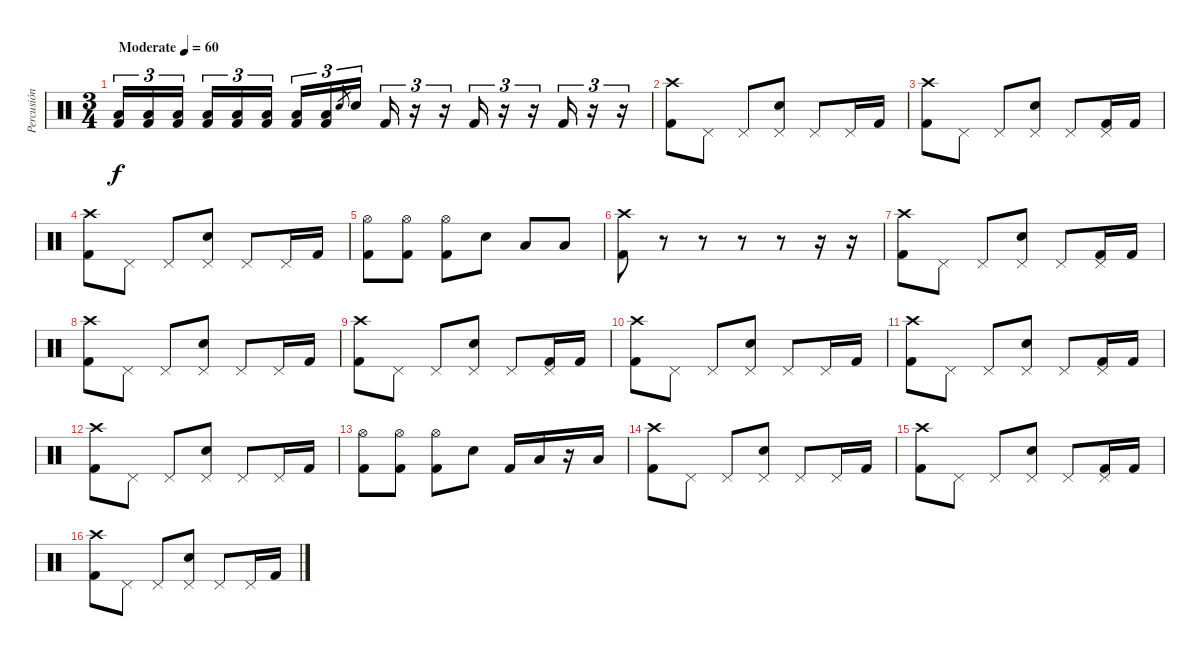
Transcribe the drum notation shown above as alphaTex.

\track ("Percusión" "Percusión") {instrument percussion}
\staff {score}
\articulation defaults
\ts (3 4)
\tempo (60 "Moderate")
\clef neutral
\ks c
("Kick (hit) 2" "Low Tom (hit)").16{tu (3 2) dy f} ("Kick (hit) 2" "Low Tom (hit)").16{tu (3 2)} ("Kick (hit) 2" "Low Tom (hit)").16{tu (3 2) beam splitsecondary} ("Kick (hit) 2" "Low Tom (hit)").16{tu (3 2)} ("Kick (hit) 2" "Low Tom (hit)").16{tu (3 2)} ("Kick (hit) 2" "Low Tom (hit)").16{tu (3 2)} ("Kick (hit) 2" "Low Tom (hit)").16{tu (3 2)} ("Kick (hit) 2" "Low Tom (hit)").16{tu (3 2)} "Snare (hit) 2".8{gr} "Snare (hit) 2".16{tu (3 2) beam splitsecondary} "Kick (hit) 2".16{tu (3 2)} r.16{tu (3 2)} r.16{tu (3 2)} "Kick (hit) 2".16{tu (3 2)} r.16{tu (3 2)} r.16{tu (3 2)} "Kick (hit) 2".16{tu (3 2)} r.16{tu (3 2)} r.16{tu (3 2)} |
("Kick (hit) 2" "Crash high (hit)").8 "Pedal Hi-Hat (hit)".8 "Pedal Hi-Hat (hit)".8 ("Pedal Hi-Hat (hit)" "Snare (hit) 2").8 "Pedal Hi-Hat (hit)".8 "Pedal Hi-Hat (hit)".16 "Kick (hit) 2".16 |
("Crash high (hit)" "Kick (hit) 2").8 "Pedal Hi-Hat (hit)".8 "Pedal Hi-Hat (hit)".8 ("Pedal Hi-Hat (hit)" "Snare (hit) 2").8 "Pedal Hi-Hat (hit)".8 ("Pedal Hi-Hat (hit)" "Kick (hit) 2").16 "Kick (hit) 2".16 |
("Kick (hit) 2" "Crash high (hit)").8 "Pedal Hi-Hat (hit)".8 "Pedal Hi-Hat (hit)".8 ("Pedal Hi-Hat (hit)" "Snare (hit) 2").8 "Pedal Hi-Hat (hit)".8 "Pedal Hi-Hat (hit)".16 "Kick (hit) 2".16 |
("Hi-Hat (open)" "Kick (hit) 2").8 ("Hi-Hat (open)" "Kick (hit) 2").8 ("Hi-Hat (open)" "Kick (hit) 2").8 "Snare (hit) 2".8 "Low Tom (hit)".8 "Low Tom (hit)".8 |
("Kick (hit) 2" "Crash high (hit)").8 r.8 r.8 r.8 r.8 r.16 r.16 |
("Crash high (hit)" "Kick (hit) 2").8 "Pedal Hi-Hat (hit)".8 "Pedal Hi-Hat (hit)".8 ("Pedal Hi-Hat (hit)" "Snare (hit) 2").8 "Pedal Hi-Hat (hit)".8 ("Pedal Hi-Hat (hit)" "Kick (hit) 2").16 "Kick (hit) 2".16 |
("Kick (hit) 2" "Crash high (hit)").8 "Pedal Hi-Hat (hit)".8 "Pedal Hi-Hat (hit)".8 ("Pedal Hi-Hat (hit)" "Snare (hit) 2").8 "Pedal Hi-Hat (hit)".8 "Pedal Hi-Hat (hit)".16 "Kick (hit) 2".16 |
("Crash high (hit)" "Kick (hit) 2").8 "Pedal Hi-Hat (hit)".8 "Pedal Hi-Hat (hit)".8 ("Pedal Hi-Hat (hit)" "Snare (hit) 2").8 "Pedal Hi-Hat (hit)".8 ("Pedal Hi-Hat (hit)" "Kick (hit) 2").16 "Kick (hit) 2".16 |
("Kick (hit) 2" "Crash high (hit)").8 "Pedal Hi-Hat (hit)".8 "Pedal Hi-Hat (hit)".8 ("Pedal Hi-Hat (hit)" "Snare (hit) 2").8 "Pedal Hi-Hat (hit)".8 "Pedal Hi-Hat (hit)".16 "Kick (hit) 2".16 |
("Crash high (hit)" "Kick (hit) 2").8 "Pedal Hi-Hat (hit)".8 "Pedal Hi-Hat (hit)".8 ("Pedal Hi-Hat (hit)" "Snare (hit) 2").8 "Pedal Hi-Hat (hit)".8 ("Pedal Hi-Hat (hit)" "Kick (hit) 2").16 "Kick (hit) 2".16 |
("Kick (hit) 2" "Crash high (hit)").8 "Pedal Hi-Hat (hit)".8 "Pedal Hi-Hat (hit)".8 ("Pedal Hi-Hat (hit)" "Snare (hit) 2").8 "Pedal Hi-Hat (hit)".8 "Pedal Hi-Hat (hit)".16 "Kick (hit) 2".16 |
("Hi-Hat (open)" "Kick (hit) 2").8 ("Hi-Hat (open)" "Kick (hit) 2").8 ("Hi-Hat (open)" "Kick (hit) 2").8 "Snare (hit) 2".8 "Kick (hit) 2".16 "Low Tom (hit)".16 r.16 "Low Tom (hit)".16 |
("Kick (hit) 2" "Crash high (hit)").8 "Pedal Hi-Hat (hit)".8 "Pedal Hi-Hat (hit)".8 ("Pedal Hi-Hat (hit)" "Snare (hit) 2").8 "Pedal Hi-Hat (hit)".8 "Pedal Hi-Hat (hit)".16 "Kick (hit) 2".16 |
("Crash high (hit)" "Kick (hit) 2").8 "Pedal Hi-Hat (hit)".8 "Pedal Hi-Hat (hit)".8 ("Pedal Hi-Hat (hit)" "Snare (hit) 2").8 "Pedal Hi-Hat (hit)".8 ("Pedal Hi-Hat (hit)" "Kick (hit) 2").16 "Kick (hit) 2".16 |
("Kick (hit) 2" "Crash high (hit)").8 "Pedal Hi-Hat (hit)".8 "Pedal Hi-Hat (hit)".8 ("Pedal Hi-Hat (hit)" "Snare (hit) 2").8 "Pedal Hi-Hat (hit)".8 "Pedal Hi-Hat (hit)".16 "Kick (hit) 2".16
